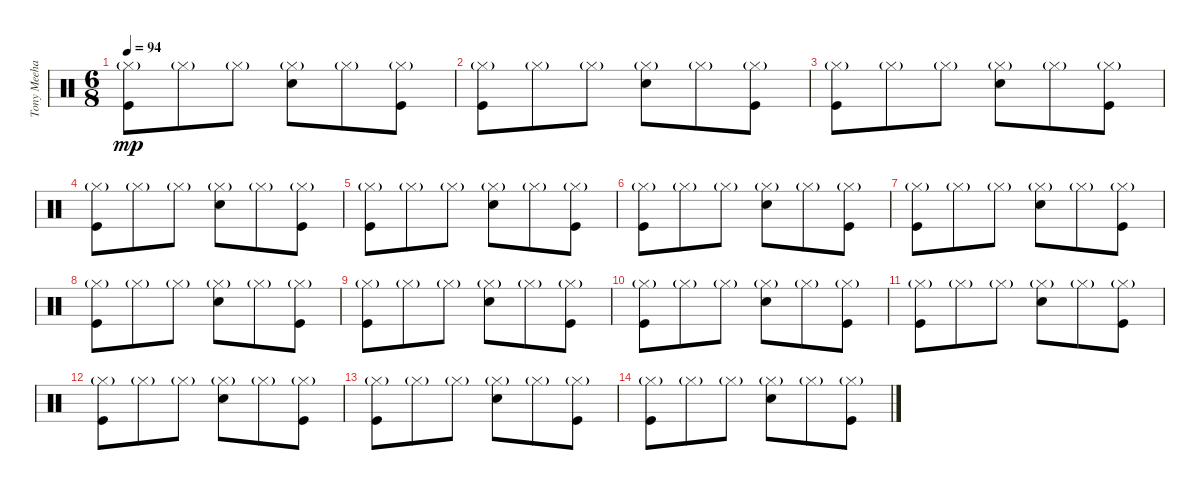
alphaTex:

\track ("Tony Meehan (drums)" "Tony Meeha") {instrument percussion}
\staff {score}
\articulation defaults
\ts (6 8)
\tempo 94
\clef neutral
\ks c
("Kick (hit)" "Hi-Hat (closed)"{g}).8{dy mp} "Hi-Hat (closed)"{g}.8 "Hi-Hat (closed)"{g}.8 ("Electric Snare (hit)" "Hi-Hat (closed)"{g}).8 "Hi-Hat (closed)"{g}.8 ("Kick (hit)" "Hi-Hat (closed)"{g}).8 |
("Kick (hit)" "Hi-Hat (closed)"{g}).8 "Hi-Hat (closed)"{g}.8 "Hi-Hat (closed)"{g}.8 ("Electric Snare (hit)" "Hi-Hat (closed)"{g}).8 "Hi-Hat (closed)"{g}.8 ("Kick (hit)" "Hi-Hat (closed)"{g}).8 |
("Kick (hit)" "Hi-Hat (closed)"{g}).8 "Hi-Hat (closed)"{g}.8 "Hi-Hat (closed)"{g}.8 ("Electric Snare (hit)" "Hi-Hat (closed)"{g}).8 "Hi-Hat (closed)"{g}.8 ("Kick (hit)" "Hi-Hat (closed)"{g}).8 |
("Kick (hit)" "Hi-Hat (closed)"{g}).8 "Hi-Hat (closed)"{g}.8 "Hi-Hat (closed)"{g}.8 ("Electric Snare (hit)" "Hi-Hat (closed)"{g}).8 "Hi-Hat (closed)"{g}.8 ("Kick (hit)" "Hi-Hat (closed)"{g}).8 |
("Kick (hit)" "Hi-Hat (closed)"{g}).8 "Hi-Hat (closed)"{g}.8 "Hi-Hat (closed)"{g}.8 ("Electric Snare (hit)" "Hi-Hat (closed)"{g}).8 "Hi-Hat (closed)"{g}.8 ("Kick (hit)" "Hi-Hat (closed)"{g}).8 |
("Kick (hit)" "Hi-Hat (closed)"{g}).8 "Hi-Hat (closed)"{g}.8 "Hi-Hat (closed)"{g}.8 ("Electric Snare (hit)" "Hi-Hat (closed)"{g}).8 "Hi-Hat (closed)"{g}.8 ("Kick (hit)" "Hi-Hat (closed)"{g}).8 |
("Kick (hit)" "Hi-Hat (closed)"{g}).8 "Hi-Hat (closed)"{g}.8 "Hi-Hat (closed)"{g}.8 ("Electric Snare (hit)" "Hi-Hat (closed)"{g}).8 "Hi-Hat (closed)"{g}.8 ("Kick (hit)" "Hi-Hat (closed)"{g}).8 |
("Kick (hit)" "Hi-Hat (closed)"{g}).8 "Hi-Hat (closed)"{g}.8 "Hi-Hat (closed)"{g}.8 ("Electric Snare (hit)" "Hi-Hat (closed)"{g}).8 "Hi-Hat (closed)"{g}.8 ("Kick (hit)" "Hi-Hat (closed)"{g}).8 |
("Kick (hit)" "Hi-Hat (closed)"{g}).8 "Hi-Hat (closed)"{g}.8 "Hi-Hat (closed)"{g}.8 ("Electric Snare (hit)" "Hi-Hat (closed)"{g}).8 "Hi-Hat (closed)"{g}.8 ("Kick (hit)" "Hi-Hat (closed)"{g}).8 |
("Kick (hit)" "Hi-Hat (closed)"{g}).8 "Hi-Hat (closed)"{g}.8 "Hi-Hat (closed)"{g}.8 ("Electric Snare (hit)" "Hi-Hat (closed)"{g}).8 "Hi-Hat (closed)"{g}.8 ("Kick (hit)" "Hi-Hat (closed)"{g}).8 |
("Kick (hit)" "Hi-Hat (closed)"{g}).8 "Hi-Hat (closed)"{g}.8 "Hi-Hat (closed)"{g}.8 ("Electric Snare (hit)" "Hi-Hat (closed)"{g}).8 "Hi-Hat (closed)"{g}.8 ("Kick (hit)" "Hi-Hat (closed)"{g}).8 |
("Kick (hit)" "Hi-Hat (closed)"{g}).8 "Hi-Hat (closed)"{g}.8 "Hi-Hat (closed)"{g}.8 ("Electric Snare (hit)" "Hi-Hat (closed)"{g}).8 "Hi-Hat (closed)"{g}.8 ("Kick (hit)" "Hi-Hat (closed)"{g}).8 |
("Kick (hit)" "Hi-Hat (closed)"{g}).8 "Hi-Hat (closed)"{g}.8 "Hi-Hat (closed)"{g}.8 ("Electric Snare (hit)" "Hi-Hat (closed)"{g}).8 "Hi-Hat (closed)"{g}.8 ("Kick (hit)" "Hi-Hat (closed)"{g}).8 |
("Kick (hit)" "Hi-Hat (closed)"{g}).8 "Hi-Hat (closed)"{g}.8 "Hi-Hat (closed)"{g}.8 ("Electric Snare (hit)" "Hi-Hat (closed)"{g}).8 "Hi-Hat (closed)"{g}.8 ("Kick (hit)" "Hi-Hat (closed)"{g}).8
